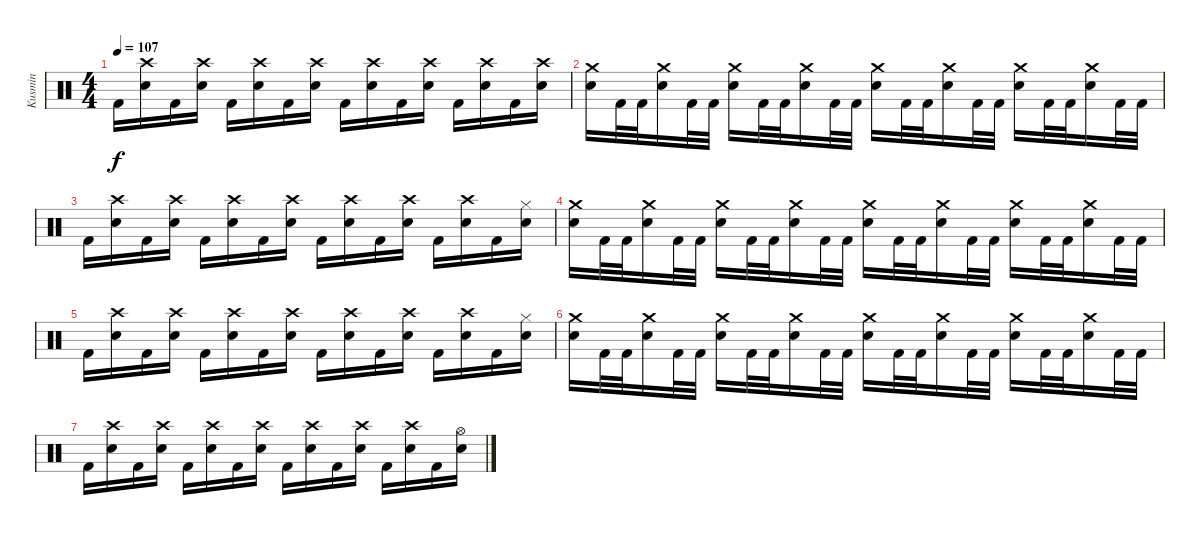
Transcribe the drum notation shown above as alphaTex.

\track ("Kusmin" "Kusmin") {instrument percussion}
\staff {score}
\articulation defaults
\ts (4 4)
\tempo 107
\clef neutral
\ks c "Kick (hit) 2".16{dy f}
("Crash high (hit)" "Snare (hit) 2").16 "Kick (hit) 2".16 ("Crash high (hit)" "Snare (hit) 2").16 "Kick (hit) 2".16 ("Crash high (hit)" "Snare (hit) 2").16 "Kick (hit) 2".16 ("Crash high (hit)" "Snare (hit) 2").16 "Kick (hit) 2".16 ("Crash high (hit)" "Snare (hit) 2").16 "Kick (hit) 2".16 ("Crash high (hit)" "Snare (hit) 2").16 "Kick (hit) 2".16 ("Crash high (hit)" "Snare (hit) 2").16 "Kick (hit) 2".16 ("Crash high (hit)" "Snare (hit) 2").16 |
("Crash medium (hit)" "Snare (hit) 2").16 "Kick (hit) 2".32 "Kick (hit) 2".32 ("Crash medium (hit)" "Snare (hit) 2").16 "Kick (hit) 2".32 "Kick (hit) 2".32 ("Crash medium (hit)" "Snare (hit) 2").16 "Kick (hit) 2".32 "Kick (hit) 2".32 ("Crash medium (hit)" "Snare (hit) 2").16 "Kick (hit) 2".32 "Kick (hit) 2".32 ("Crash medium (hit)" "Snare (hit) 2").16 "Kick (hit) 2".32 "Kick (hit) 2".32 ("Crash medium (hit)" "Snare (hit) 2").16 "Kick (hit) 2".32 "Kick (hit) 2".32 ("Crash medium (hit)" "Snare (hit) 2").16 "Kick (hit) 2".32 "Kick (hit) 2".32 ("Crash medium (hit)" "Snare (hit) 2").16 "Kick (hit) 2".32 "Kick (hit) 2".32 |
"Kick (hit) 2".16 ("Crash high (hit)" "Snare (hit) 2").16 "Kick (hit) 2".16 ("Crash high (hit)" "Snare (hit) 2").16 "Kick (hit) 2".16 ("Crash high (hit)" "Snare (hit) 2").16 "Kick (hit) 2".16 ("Crash high (hit)" "Snare (hit) 2").16 "Kick (hit) 2".16 ("Crash high (hit)" "Snare (hit) 2").16 "Kick (hit) 2".16 ("Crash high (hit)" "Snare (hit) 2").16 "Kick (hit) 2".16 ("Crash high (hit)" "Snare (hit) 2").16 "Kick (hit) 2".16 ("Hi-Hat (closed)" "Snare (hit) 2").16 |
("Crash medium (hit)" "Snare (hit) 2").16 "Kick (hit) 2".32 "Kick (hit) 2".32 ("Crash medium (hit)" "Snare (hit) 2").16 "Kick (hit) 2".32 "Kick (hit) 2".32 ("Crash medium (hit)" "Snare (hit) 2").16 "Kick (hit) 2".32 "Kick (hit) 2".32 ("Crash medium (hit)" "Snare (hit) 2").16 "Kick (hit) 2".32 "Kick (hit) 2".32 ("Crash medium (hit)" "Snare (hit) 2").16 "Kick (hit) 2".32 "Kick (hit) 2".32 ("Crash medium (hit)" "Snare (hit) 2").16 "Kick (hit) 2".32 "Kick (hit) 2".32 ("Crash medium (hit)" "Snare (hit) 2").16 "Kick (hit) 2".32 "Kick (hit) 2".32 ("Crash medium (hit)" "Snare (hit) 2").16 "Kick (hit) 2".32 "Kick (hit) 2".32 |
"Kick (hit) 2".16 ("Crash high (hit)" "Snare (hit) 2").16 "Kick (hit) 2".16 ("Crash high (hit)" "Snare (hit) 2").16 "Kick (hit) 2".16 ("Crash high (hit)" "Snare (hit) 2").16 "Kick (hit) 2".16 ("Crash high (hit)" "Snare (hit) 2").16 "Kick (hit) 2".16 ("Crash high (hit)" "Snare (hit) 2").16 "Kick (hit) 2".16 ("Crash high (hit)" "Snare (hit) 2").16 "Kick (hit) 2".16 ("Crash high (hit)" "Snare (hit) 2").16 "Kick (hit) 2".16 ("Hi-Hat (closed)" "Snare (hit) 2").16 |
("Crash medium (hit)" "Snare (hit) 2").16 "Kick (hit) 2".32 "Kick (hit) 2".32 ("Crash medium (hit)" "Snare (hit) 2").16 "Kick (hit) 2".32 "Kick (hit) 2".32 ("Crash medium (hit)" "Snare (hit) 2").16 "Kick (hit) 2".32 "Kick (hit) 2".32 ("Crash medium (hit)" "Snare (hit) 2").16 "Kick (hit) 2".32 "Kick (hit) 2".32 ("Crash medium (hit)" "Snare (hit) 2").16 "Kick (hit) 2".32 "Kick (hit) 2".32 ("Crash medium (hit)" "Snare (hit) 2").16 "Kick (hit) 2".32 "Kick (hit) 2".32 ("Crash medium (hit)" "Snare (hit) 2").16 "Kick (hit) 2".32 "Kick (hit) 2".32 ("Crash medium (hit)" "Snare (hit) 2").16 "Kick (hit) 2".32 "Kick (hit) 2".32 |
"Kick (hit) 2".16 ("Crash high (hit)" "Snare (hit) 2").16 "Kick (hit) 2".16 ("Crash high (hit)" "Snare (hit) 2").16 "Kick (hit) 2".16 ("Crash high (hit)" "Snare (hit) 2").16 "Kick (hit) 2".16 ("Crash high (hit)" "Snare (hit) 2").16 "Kick (hit) 2".16 ("Crash high (hit)" "Snare (hit) 2").16 "Kick (hit) 2".16 ("Crash high (hit)" "Snare (hit) 2").16 "Kick (hit) 2".16 ("Crash high (hit)" "Snare (hit) 2").16 "Kick (hit) 2".16 ("Hi-Hat (open)" "Snare (hit) 2").16
